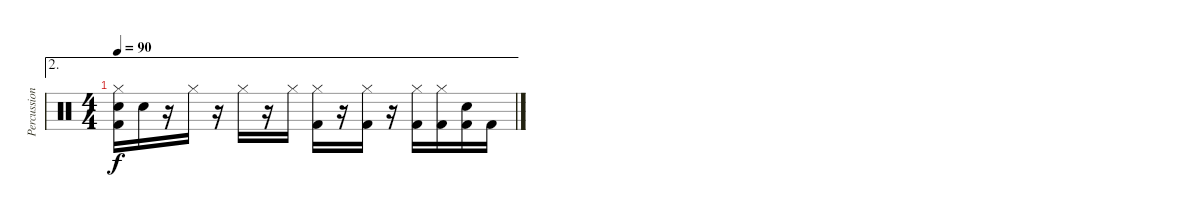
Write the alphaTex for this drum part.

\track ("Percussion" "Percussion") {instrument percussion}
\staff {score}
\articulation defaults
\ae 2
\ts (4 4)
\tempo 90
\clef neutral
\ks c
("Hi-Hat (closed)" "Electric Snare (hit)" "Kick (hit) 2").16{dy f} "Electric Snare (hit)".16 r.16 "Hi-Hat (closed)".16 r.16 "Hi-Hat (closed)".16 r.16 "Hi-Hat (closed)".16 ("Hi-Hat (closed)" "Kick (hit) 2").16 r.16 ("Hi-Hat (closed)" "Kick (hit) 2").16 r.16 ("Hi-Hat (closed)" "Kick (hit) 2").16 ("Hi-Hat (closed)" "Kick (hit) 2").16 ("Electric Snare (hit)" "Kick (hit) 2").16 "Kick (hit) 2".16
